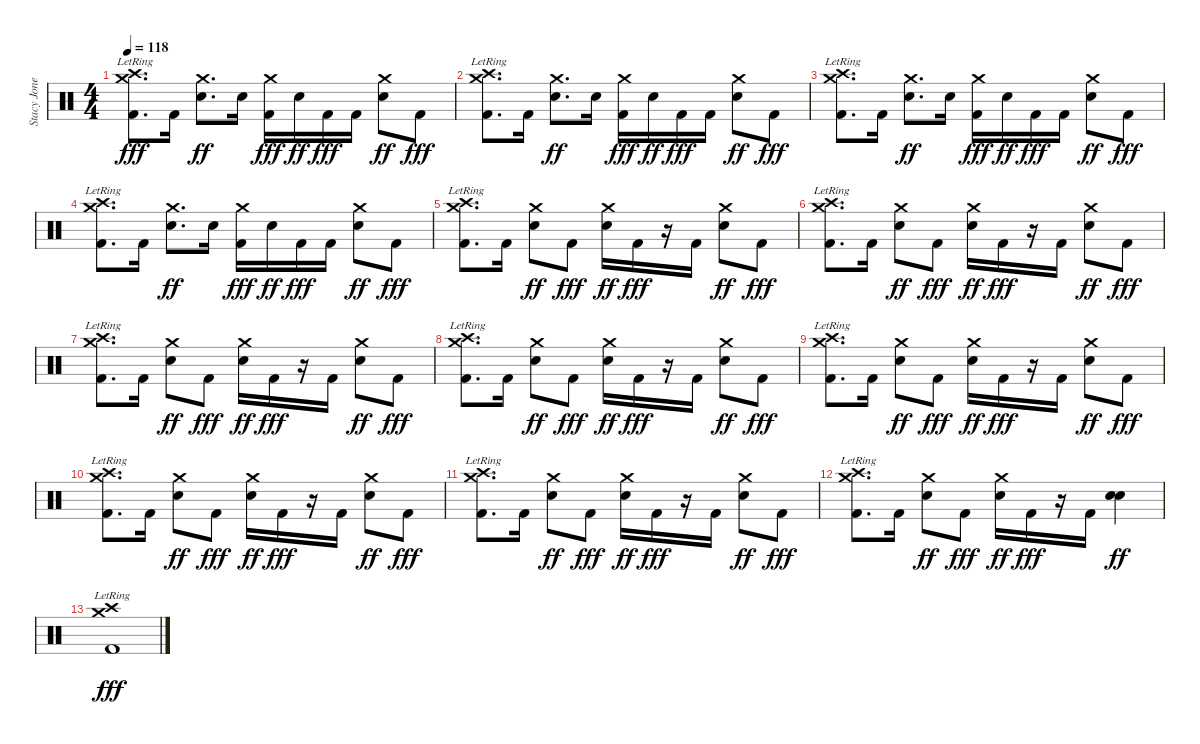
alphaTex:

\track ("Stacy Jones: Remo/Sabian HHX/AAX" "Stacy Jone") {instrument percussion}
\staff {score}
\articulation defaults
\ts (4 4)
\tempo 118
\clef neutral
\ks c
("Crash medium (hit)"{lr} "Crash high (hit)"{lr} "Kick (hit) 2").8{d dy fff} "Kick (hit) 2".16 ("Crash medium (hit)" "Electric Snare (hit)").8{d dy ff} "Electric Snare (hit)".16 ("Crash medium (hit)" "Kick (hit) 2").16{dy fff} "Electric Snare (hit)".16{dy ff} "Kick (hit) 2".16{dy fff} "Kick (hit) 2".16 ("Crash medium (hit)" "Electric Snare (hit)").8{dy ff} "Kick (hit) 2".8{dy fff} |
("Crash medium (hit)"{lr} "Crash high (hit)"{lr} "Kick (hit) 2").8{d} "Kick (hit) 2".16 ("Crash medium (hit)" "Electric Snare (hit)").8{d dy ff} "Electric Snare (hit)".16 ("Crash medium (hit)" "Kick (hit) 2").16{dy fff} "Electric Snare (hit)".16{dy ff} "Kick (hit) 2".16{dy fff} "Kick (hit) 2".16 ("Crash medium (hit)" "Electric Snare (hit)").8{dy ff} "Kick (hit) 2".8{dy fff} |
("Crash medium (hit)"{lr} "Crash high (hit)"{lr} "Kick (hit) 2").8{d} "Kick (hit) 2".16 ("Crash medium (hit)" "Electric Snare (hit)").8{d dy ff} "Electric Snare (hit)".16 ("Crash medium (hit)" "Kick (hit) 2").16{dy fff} "Electric Snare (hit)".16{dy ff} "Kick (hit) 2".16{dy fff} "Kick (hit) 2".16 ("Crash medium (hit)" "Electric Snare (hit)").8{dy ff} "Kick (hit) 2".8{dy fff} |
("Crash medium (hit)"{lr} "Crash high (hit)"{lr} "Kick (hit) 2").8{d} "Kick (hit) 2".16 ("Crash medium (hit)" "Electric Snare (hit)").8{d dy ff} "Electric Snare (hit)".16 ("Crash medium (hit)" "Kick (hit) 2").16{dy fff} "Electric Snare (hit)".16{dy ff} "Kick (hit) 2".16{dy fff} "Kick (hit) 2".16 ("Crash medium (hit)" "Electric Snare (hit)").8{dy ff} "Kick (hit) 2".8{dy fff} |
("Crash medium (hit)"{lr} "Crash high (hit)"{lr} "Kick (hit) 2").8{d} "Kick (hit) 2".16 ("Crash medium (hit)" "Electric Snare (hit)").8{dy ff} "Kick (hit) 2".8{dy fff} ("Crash medium (hit)" "Electric Snare (hit)").16{dy ff} "Kick (hit) 2".16{dy fff} r.16 "Kick (hit) 2".16 ("Crash medium (hit)" "Electric Snare (hit)").8{dy ff} "Kick (hit) 2".8{dy fff} |
("Crash medium (hit)"{lr} "Crash high (hit)"{lr} "Kick (hit) 2").8{d} "Kick (hit) 2".16 ("Crash medium (hit)" "Electric Snare (hit)").8{dy ff} "Kick (hit) 2".8{dy fff} ("Crash medium (hit)" "Electric Snare (hit)").16{dy ff} "Kick (hit) 2".16{dy fff} r.16 "Kick (hit) 2".16 ("Crash medium (hit)" "Electric Snare (hit)").8{dy ff} "Kick (hit) 2".8{dy fff} |
("Crash medium (hit)"{lr} "Crash high (hit)"{lr} "Kick (hit) 2").8{d} "Kick (hit) 2".16 ("Crash medium (hit)" "Electric Snare (hit)").8{dy ff} "Kick (hit) 2".8{dy fff} ("Crash medium (hit)" "Electric Snare (hit)").16{dy ff} "Kick (hit) 2".16{dy fff} r.16 "Kick (hit) 2".16 ("Crash medium (hit)" "Electric Snare (hit)").8{dy ff} "Kick (hit) 2".8{dy fff} |
("Crash medium (hit)"{lr} "Crash high (hit)"{lr} "Kick (hit) 2").8{d} "Kick (hit) 2".16 ("Crash medium (hit)" "Electric Snare (hit)").8{dy ff} "Kick (hit) 2".8{dy fff} ("Crash medium (hit)" "Electric Snare (hit)").16{dy ff} "Kick (hit) 2".16{dy fff} r.16 "Kick (hit) 2".16 ("Crash medium (hit)" "Electric Snare (hit)").8{dy ff} "Kick (hit) 2".8{dy fff} |
("Crash medium (hit)"{lr} "Crash high (hit)"{lr} "Kick (hit) 2").8{d} "Kick (hit) 2".16 ("Crash medium (hit)" "Electric Snare (hit)").8{dy ff} "Kick (hit) 2".8{dy fff} ("Crash medium (hit)" "Electric Snare (hit)").16{dy ff} "Kick (hit) 2".16{dy fff} r.16 "Kick (hit) 2".16 ("Crash medium (hit)" "Electric Snare (hit)").8{dy ff} "Kick (hit) 2".8{dy fff} |
("Crash medium (hit)"{lr} "Crash high (hit)"{lr} "Kick (hit) 2").8{d} "Kick (hit) 2".16 ("Crash medium (hit)" "Electric Snare (hit)").8{dy ff} "Kick (hit) 2".8{dy fff} ("Crash medium (hit)" "Electric Snare (hit)").16{dy ff} "Kick (hit) 2".16{dy fff} r.16 "Kick (hit) 2".16 ("Crash medium (hit)" "Electric Snare (hit)").8{dy ff} "Kick (hit) 2".8{dy fff} |
("Crash medium (hit)"{lr} "Crash high (hit)"{lr} "Kick (hit) 2").8{d} "Kick (hit) 2".16 ("Crash medium (hit)" "Electric Snare (hit)").8{dy ff} "Kick (hit) 2".8{dy fff} ("Crash medium (hit)" "Electric Snare (hit)").16{dy ff} "Kick (hit) 2".16{dy fff} r.16 "Kick (hit) 2".16 ("Crash medium (hit)" "Electric Snare (hit)").8{dy ff} "Kick (hit) 2".8{dy fff} |
("Crash medium (hit)"{lr} "Crash high (hit)"{lr} "Kick (hit) 2").8{d} "Kick (hit) 2".16 ("Crash medium (hit)" "Electric Snare (hit)").8{dy ff} "Kick (hit) 2".8{dy fff} ("Crash medium (hit)" "Electric Snare (hit)").16{dy ff} "Kick (hit) 2".16{dy fff} r.16 "Kick (hit) 2".16 ("Electric Snare (hit)" "Electric Snare (hit)").4{dy ff} |
("Crash medium (hit)"{lr} "Crash high (hit)"{lr} "Kick (hit) 2").1{dy fff}
